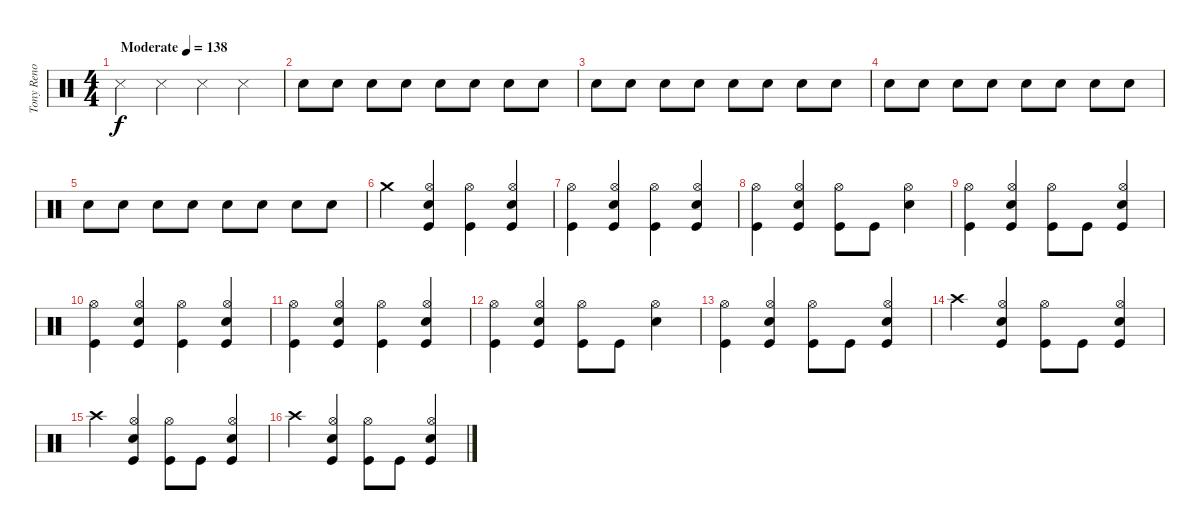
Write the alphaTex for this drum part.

\track ("Tony Reno" "Tony Reno") {instrument percussion}
\staff {score}
\articulation defaults
\ts (4 4)
\tempo (138 "Moderate")
\clef neutral
\ks c "Snare (side stick) 3".4{dy f} "Snare (side stick) 3".4 "Snare (side stick) 3".4 "Snare (side stick) 3".4
|
"Snare (hit) 2".8 "Snare (hit) 2".8 "Snare (hit) 2".8 "Snare (hit) 2".8 "Snare (hit) 2".8 "Snare (hit) 2".8 "Snare (hit) 2".8 "Snare (hit) 2".8 |
"Snare (hit) 2".8 "Snare (hit) 2".8 "Snare (hit) 2".8 "Snare (hit) 2".8 "Snare (hit) 2".8 "Snare (hit) 2".8 "Snare (hit) 2".8 "Snare (hit) 2".8 |
"Snare (hit) 2".8 "Snare (hit) 2".8 "Snare (hit) 2".8 "Snare (hit) 2".8 "Snare (hit) 2".8 "Snare (hit) 2".8 "Snare (hit) 2".8 "Snare (hit) 2".8 |
"Snare (hit) 2".8 "Snare (hit) 2".8 "Snare (hit) 2".8 "Snare (hit) 2".8 "Snare (hit) 2".8 "Snare (hit) 2".8 "Snare (hit) 2".8 "Snare (hit) 2".8 |
"Crash medium (hit)".4 ("Snare (hit) 2" "Hi-Hat (open)" "Kick (hit)").4 ("Hi-Hat (open)" "Kick (hit)").4 ("Snare (hit) 2" "Hi-Hat (open)" "Kick (hit)").4 |
("Hi-Hat (open)" "Kick (hit)").4 ("Snare (hit) 2" "Hi-Hat (open)" "Kick (hit)").4 ("Hi-Hat (open)" "Kick (hit)").4 ("Snare (hit) 2" "Hi-Hat (open)" "Kick (hit)").4 |
("Hi-Hat (open)" "Kick (hit)").4 ("Snare (hit) 2" "Hi-Hat (open)" "Kick (hit)").4 ("Hi-Hat (open)" "Kick (hit)").8 "Kick (hit)".8 ("Snare (hit) 2" "Hi-Hat (open)").4 |
("Hi-Hat (open)" "Kick (hit)").4 ("Snare (hit) 2" "Hi-Hat (open)" "Kick (hit)").4 ("Hi-Hat (open)" "Kick (hit)").8 "Kick (hit)".8 ("Snare (hit) 2" "Hi-Hat (open)" "Kick (hit)").4 |
("Hi-Hat (open)" "Kick (hit)").4 ("Snare (hit) 2" "Hi-Hat (open)" "Kick (hit)").4 ("Hi-Hat (open)" "Kick (hit)").4 ("Snare (hit) 2" "Hi-Hat (open)" "Kick (hit)").4 |
("Hi-Hat (open)" "Kick (hit)").4 ("Snare (hit) 2" "Hi-Hat (open)" "Kick (hit)").4 ("Hi-Hat (open)" "Kick (hit)").4 ("Snare (hit) 2" "Hi-Hat (open)" "Kick (hit)").4 |
("Hi-Hat (open)" "Kick (hit)").4 ("Snare (hit) 2" "Hi-Hat (open)" "Kick (hit)").4 ("Hi-Hat (open)" "Kick (hit)").8 "Kick (hit)".8 ("Snare (hit) 2" "Hi-Hat (open)").4 |
("Hi-Hat (open)" "Kick (hit)").4 ("Snare (hit) 2" "Hi-Hat (open)" "Kick (hit)").4 ("Hi-Hat (open)" "Kick (hit)").8 "Kick (hit)".8 ("Snare (hit) 2" "Hi-Hat (open)" "Kick (hit)").4 |
"Crash high (hit)".4 ("Snare (hit) 2" "Hi-Hat (open)" "Kick (hit)").4 ("Hi-Hat (open)" "Kick (hit)").8 "Kick (hit)".8 ("Snare (hit) 2" "Hi-Hat (open)" "Kick (hit)").4 |
"Crash high (hit)".4 ("Snare (hit) 2" "Hi-Hat (open)" "Kick (hit)").4 ("Hi-Hat (open)" "Kick (hit)").8 "Kick (hit)".8 ("Snare (hit) 2" "Hi-Hat (open)" "Kick (hit)").4 |
"Crash high (hit)".4 ("Snare (hit) 2" "Hi-Hat (open)" "Kick (hit)").4 ("Hi-Hat (open)" "Kick (hit)").8 "Kick (hit)".8 ("Snare (hit) 2" "Hi-Hat (open)" "Kick (hit)").4
